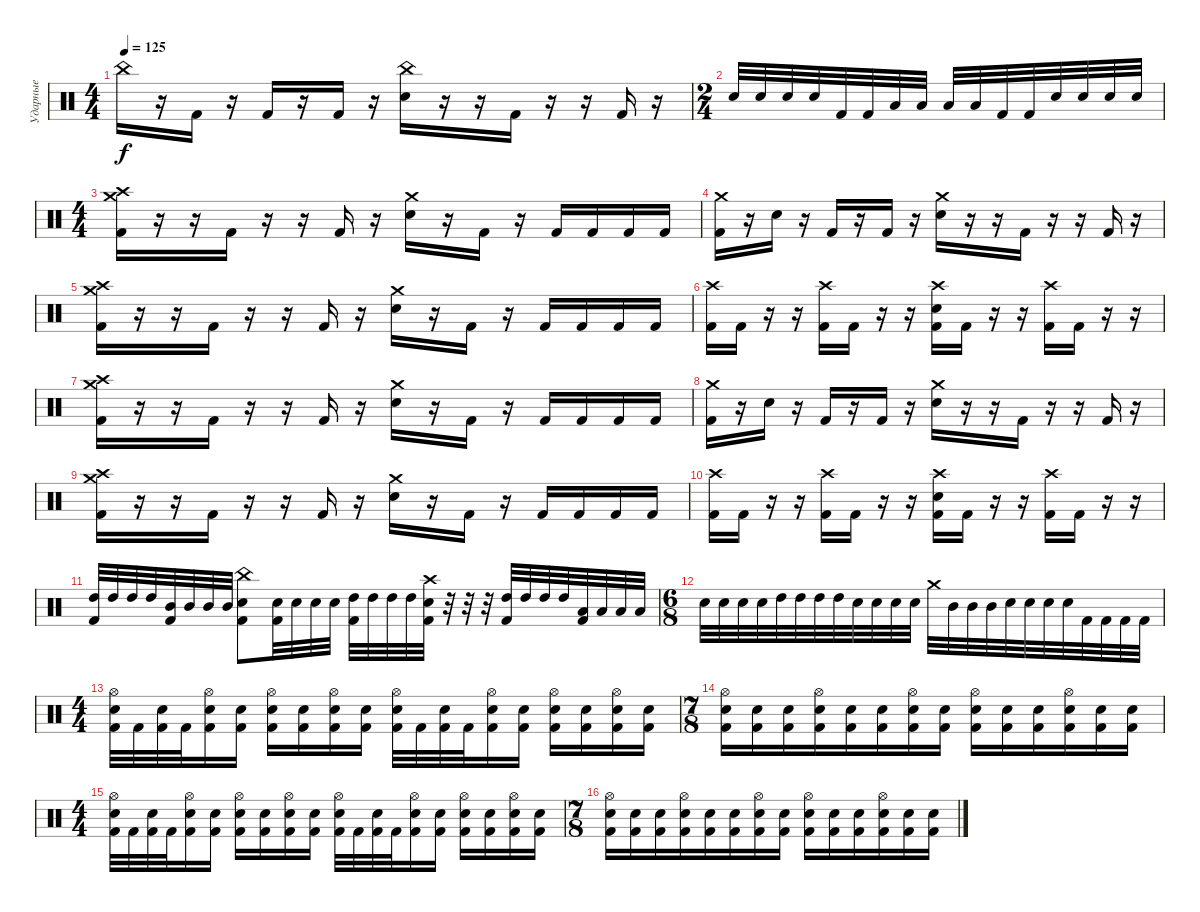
\track ("Ударные" "Ударные") {instrument percussion}
\staff {score}
\articulation defaults
\ts (4 4)
\tempo 125
\clef neutral
\ks c "China (hit)".16{dy f}
r.16 "Kick (hit) 2".16 r.16 "Kick (hit) 2".16 r.16 "Kick (hit) 2".16 r.16 ("China (hit)" "Electric Snare (hit)").16 r.16 r.16 "Kick (hit) 2".16 r.16 r.16 "Kick (hit) 2".16 r.16 |
\ts (2 4)
"Electric Snare (hit)".32 "Electric Snare (hit)".32 "Electric Snare (hit)".32 "Electric Snare (hit)".32 "Kick (hit) 2".32 "Kick (hit) 2".32 "Low Tom (hit)".32 "Low Tom (hit)".32 "Low Tom (hit)".32 "Low Tom (hit)".32 "Kick (hit) 2".32 "Kick (hit) 2".32 "Electric Snare (hit)".32 "Electric Snare (hit)".32 "Electric Snare (hit)".32 "Electric Snare (hit)".32 |
\ts (4 4)
("Crash medium (hit)" "Crash high (hit)" "Kick (hit) 2").16 r.16 r.16 "Kick (hit) 2".16 r.16 r.16 "Kick (hit) 2".16 r.16 ("Crash medium (hit)" "Electric Snare (hit)").16 r.16 "Kick (hit) 2".16 r.16 "Kick (hit) 2".16 "Kick (hit) 2".16 "Kick (hit) 2".16 "Kick (hit) 2".16 |
("Crash medium (hit)" "Kick (hit) 2").16 r.16 "Electric Snare (hit)".16 r.16 "Kick (hit) 2".16 r.16 "Kick (hit) 2".16 r.16 ("Crash medium (hit)" "Electric Snare (hit)").16 r.16 r.16 "Kick (hit) 2".16 r.16 r.16 "Kick (hit) 2".16 r.16 |
("Crash medium (hit)" "Crash high (hit)" "Kick (hit) 2").16 r.16 r.16 "Kick (hit) 2".16 r.16 r.16 "Kick (hit) 2".16 r.16 ("Crash medium (hit)" "Electric Snare (hit)").16 r.16 "Kick (hit) 2".16 r.16 "Kick (hit) 2".16 "Kick (hit) 2".16 "Kick (hit) 2".16 "Kick (hit) 2".16 |
("Crash high (hit)" "Kick (hit) 2").16 "Kick (hit) 2".16 r.16 r.16 ("Crash high (hit)" "Kick (hit) 2").16 "Kick (hit) 2".16 r.16 r.16 ("Crash high (hit)" "Electric Snare (hit)" "Kick (hit) 2").16 "Kick (hit) 2".16 r.16 r.16 ("Crash high (hit)" "Kick (hit) 2").16 "Kick (hit) 2".16 r.16 r.16 |
("Crash medium (hit)" "Crash high (hit)" "Kick (hit) 2").16 r.16 r.16 "Kick (hit) 2".16 r.16 r.16 "Kick (hit) 2".16 r.16 ("Crash medium (hit)" "Electric Snare (hit)").16 r.16 "Kick (hit) 2".16 r.16 "Kick (hit) 2".16 "Kick (hit) 2".16 "Kick (hit) 2".16 "Kick (hit) 2".16 |
("Crash medium (hit)" "Kick (hit) 2").16 r.16 "Electric Snare (hit)".16 r.16 "Kick (hit) 2".16 r.16 "Kick (hit) 2".16 r.16 ("Crash medium (hit)" "Electric Snare (hit)").16 r.16 r.16 "Kick (hit) 2".16 r.16 r.16 "Kick (hit) 2".16 r.16 |
("Crash medium (hit)" "Crash high (hit)" "Kick (hit) 2").16 r.16 r.16 "Kick (hit) 2".16 r.16 r.16 "Kick (hit) 2".16 r.16 ("Crash medium (hit)" "Electric Snare (hit)").16 r.16 "Kick (hit) 2".16 r.16 "Kick (hit) 2".16 "Kick (hit) 2".16 "Kick (hit) 2".16 "Kick (hit) 2".16 |
("Crash high (hit)" "Kick (hit) 2").16 "Kick (hit) 2".16 r.16 r.16 ("Crash high (hit)" "Kick (hit) 2").16 "Kick (hit) 2".16 r.16 r.16 ("Crash high (hit)" "Electric Snare (hit)" "Kick (hit) 2").16 "Kick (hit) 2".16 r.16 r.16 ("Crash high (hit)" "Kick (hit) 2").16 "Kick (hit) 2".16 r.16 r.16 |
("High Tom (hit)" "Kick (hit) 2").32 "High Tom (hit)".32 "High Tom (hit)".32 "High Tom (hit)".32 ("Mid Tom (hit)" "Kick (hit) 2").32 "Mid Tom (hit)".32 "Mid Tom (hit)".32 "Mid Tom (hit)".32 ("China (hit)" "Electric Snare (hit)" "Kick (hit) 2").8 ("Electric Snare (hit)" "Kick (hit) 2").32 "Electric Snare (hit)".32 "Electric Snare (hit)".32 "Electric Snare (hit)".32 ("High Tom (hit)" "Kick (hit) 2").32 "High Tom (hit)".32 "High Tom (hit)".32 "High Tom (hit)".32 ("Crash high (hit)" "Electric Snare (hit)" "Kick (hit) 2").32 r.32 r.32 r.32 ("High Tom (hit)" "Kick (hit) 2").32 "High Tom (hit)".32 "High Tom (hit)".32 "High Tom (hit)".32 ("Low Tom (hit)" "Kick (hit) 2").32 "Low Tom (hit)".32 "Low Tom (hit)".32 "Low Tom (hit)".32 |
\ts (6 8)
"Electric Snare (hit)".32 "Electric Snare (hit)".32 "Electric Snare (hit)".32 "Electric Snare (hit)".32 "High Tom (hit)".32 "High Tom (hit)".32 "High Tom (hit)".32 "High Tom (hit)".32 "Electric Snare (hit)".32 "Electric Snare (hit)".32 "Electric Snare (hit)".32 "Electric Snare (hit)".32 "Crash medium (hit)".32 "Mid Tom (hit)".32 "Mid Tom (hit)".32 "Mid Tom (hit)".32 "Electric Snare (hit)".32 "Electric Snare (hit)".32 "Electric Snare (hit)".32 "Electric Snare (hit)".32 "Kick (hit) 2".32 "Kick (hit) 2".32 "Kick (hit) 2".32 "Kick (hit) 2".32 |
\ts (4 4)
("Hi-Hat (open)" "Electric Snare (hit)" "Kick (hit) 2").32 "Kick (hit) 2".32 ("Electric Snare (hit)" "Kick (hit) 2").32 "Kick (hit) 2".32 ("Hi-Hat (open)" "Electric Snare (hit)" "Kick (hit) 2").16 ("Kick (hit) 2" "Electric Snare (hit)").16 ("Hi-Hat (open)" "Kick (hit) 2" "Electric Snare (hit)").16 ("Kick (hit) 2" "Electric Snare (hit)").16 ("Hi-Hat (open)" "Kick (hit) 2" "Electric Snare (hit)").16 ("Kick (hit) 2" "Electric Snare (hit)").16 ("Hi-Hat (open)" "Electric Snare (hit)" "Kick (hit) 2").32 "Kick (hit) 2".32 ("Electric Snare (hit)" "Kick (hit) 2").32 "Kick (hit) 2".32 ("Hi-Hat (open)" "Kick (hit) 2" "Electric Snare (hit)").16 ("Kick (hit) 2" "Electric Snare (hit)").16 ("Hi-Hat (open)" "Kick (hit) 2" "Electric Snare (hit)").16 ("Kick (hit) 2" "Electric Snare (hit)").16 ("Hi-Hat (open)" "Kick (hit) 2" "Electric Snare (hit)").16 ("Kick (hit) 2" "Electric Snare (hit)").16 |
\ts (7 8)
("Hi-Hat (open)" "Electric Snare (hit)" "Kick (hit) 2").16 ("Electric Snare (hit)" "Kick (hit) 2").16 ("Electric Snare (hit)" "Kick (hit) 2").16 ("Hi-Hat (open)" "Electric Snare (hit)" "Kick (hit) 2").16 ("Electric Snare (hit)" "Kick (hit) 2").16 ("Electric Snare (hit)" "Kick (hit) 2").16 ("Hi-Hat (open)" "Electric Snare (hit)" "Kick (hit) 2").16 ("Electric Snare (hit)" "Kick (hit) 2").16 ("Hi-Hat (open)" "Electric Snare (hit)" "Kick (hit) 2").16 ("Electric Snare (hit)" "Kick (hit) 2").16 ("Electric Snare (hit)" "Kick (hit) 2").16 ("Hi-Hat (open)" "Electric Snare (hit)" "Kick (hit) 2").16 ("Electric Snare (hit)" "Kick (hit) 2").16 ("Electric Snare (hit)" "Kick (hit) 2").16 |
\ts (4 4)
("Hi-Hat (open)" "Electric Snare (hit)" "Kick (hit) 2").32 "Kick (hit) 2".32 ("Electric Snare (hit)" "Kick (hit) 2").32 "Kick (hit) 2".32 ("Hi-Hat (open)" "Electric Snare (hit)" "Kick (hit) 2").16 ("Kick (hit) 2" "Electric Snare (hit)").16 ("Hi-Hat (open)" "Kick (hit) 2" "Electric Snare (hit)").16 ("Kick (hit) 2" "Electric Snare (hit)").16 ("Hi-Hat (open)" "Kick (hit) 2" "Electric Snare (hit)").16 ("Kick (hit) 2" "Electric Snare (hit)").16 ("Hi-Hat (open)" "Electric Snare (hit)" "Kick (hit) 2").32 "Kick (hit) 2".32 ("Electric Snare (hit)" "Kick (hit) 2").32 "Kick (hit) 2".32 ("Hi-Hat (open)" "Kick (hit) 2" "Electric Snare (hit)").16 ("Kick (hit) 2" "Electric Snare (hit)").16 ("Hi-Hat (open)" "Kick (hit) 2" "Electric Snare (hit)").16 ("Kick (hit) 2" "Electric Snare (hit)").16 ("Hi-Hat (open)" "Kick (hit) 2" "Electric Snare (hit)").16 ("Kick (hit) 2" "Electric Snare (hit)").16 |
\ts (7 8)
("Hi-Hat (open)" "Electric Snare (hit)" "Kick (hit) 2").16 ("Electric Snare (hit)" "Kick (hit) 2").16 ("Electric Snare (hit)" "Kick (hit) 2").16 ("Hi-Hat (open)" "Electric Snare (hit)" "Kick (hit) 2").16 ("Electric Snare (hit)" "Kick (hit) 2").16 ("Electric Snare (hit)" "Kick (hit) 2").16 ("Hi-Hat (open)" "Electric Snare (hit)" "Kick (hit) 2").16 ("Electric Snare (hit)" "Kick (hit) 2").16 ("Hi-Hat (open)" "Electric Snare (hit)" "Kick (hit) 2").16 ("Electric Snare (hit)" "Kick (hit) 2").16 ("Electric Snare (hit)" "Kick (hit) 2").16 ("Hi-Hat (open)" "Electric Snare (hit)" "Kick (hit) 2").16 ("Electric Snare (hit)" "Kick (hit) 2").16 ("Electric Snare (hit)" "Kick (hit) 2").16
